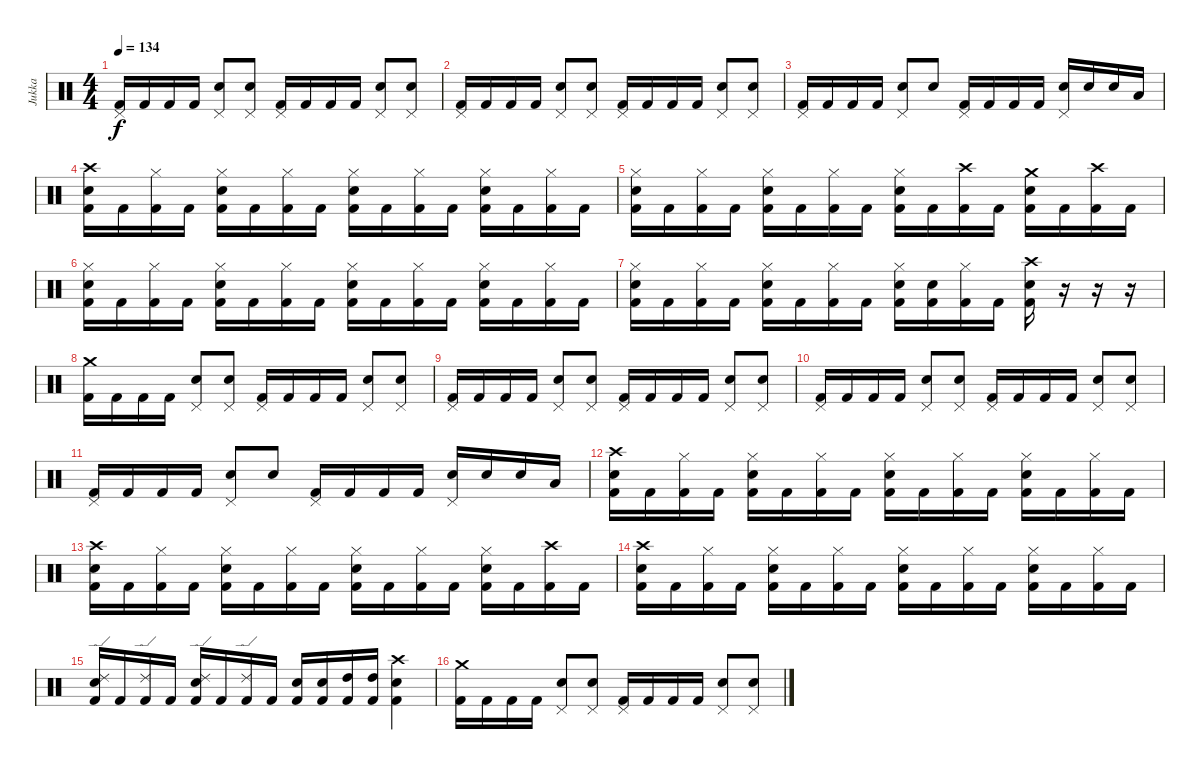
\track ("Jukka" "Jukka") {instrument percussion}
\staff {score}
\articulation defaults
\ts (4 4)
\tempo 134
\clef neutral
\ks c
("Pedal Hi-Hat (hit)" "Kick (hit) 2").16{dy f} "Kick (hit) 2".16 "Kick (hit) 2".16 "Kick (hit) 2".16 ("Pedal Hi-Hat (hit)" "Electric Snare (hit)").8 ("Pedal Hi-Hat (hit)" "Electric Snare (hit)").8 ("Pedal Hi-Hat (hit)" "Kick (hit) 2").16 "Kick (hit) 2".16 "Kick (hit) 2".16 "Kick (hit) 2".16 ("Pedal Hi-Hat (hit)" "Electric Snare (hit)").8 ("Pedal Hi-Hat (hit)" "Electric Snare (hit)").8 |
("Pedal Hi-Hat (hit)" "Kick (hit) 2").16 "Kick (hit) 2".16 "Kick (hit) 2".16 "Kick (hit) 2".16 ("Pedal Hi-Hat (hit)" "Electric Snare (hit)").8 ("Pedal Hi-Hat (hit)" "Electric Snare (hit)").8 ("Pedal Hi-Hat (hit)" "Kick (hit) 2").16 "Kick (hit) 2".16 "Kick (hit) 2".16 "Kick (hit) 2".16 ("Pedal Hi-Hat (hit)" "Electric Snare (hit)").8 ("Pedal Hi-Hat (hit)" "Electric Snare (hit)").8 |
("Pedal Hi-Hat (hit)" "Kick (hit) 2").16 "Kick (hit) 2".16 "Kick (hit) 2".16 "Kick (hit) 2".16 ("Pedal Hi-Hat (hit)" "Electric Snare (hit)").8 "Electric Snare (hit)".8 ("Pedal Hi-Hat (hit)" "Kick (hit) 2").16 "Kick (hit) 2".16 "Kick (hit) 2".16 "Kick (hit) 2".16 ("Pedal Hi-Hat (hit)" "Electric Snare (hit)").16 "Electric Snare (hit)".16 "Electric Snare (hit)".16 "Low Tom (hit)".16 |
("Crash high (hit)" "Electric Snare (hit)" "Kick (hit) 2").16 "Kick (hit) 2".16 ("Hi-Hat (closed)" "Kick (hit) 2").16 "Kick (hit) 2".16 ("Hi-Hat (closed)" "Electric Snare (hit)" "Kick (hit) 2").16 "Kick (hit) 2".16 ("Hi-Hat (closed)" "Kick (hit) 2").16 "Kick (hit) 2".16 ("Hi-Hat (closed)" "Electric Snare (hit)" "Kick (hit) 2").16 "Kick (hit) 2".16 ("Hi-Hat (closed)" "Kick (hit) 2").16 "Kick (hit) 2".16 ("Hi-Hat (closed)" "Electric Snare (hit)" "Kick (hit) 2").16 "Kick (hit) 2".16 ("Hi-Hat (closed)" "Kick (hit) 2").16 "Kick (hit) 2".16 |
("Hi-Hat (closed)" "Electric Snare (hit)" "Kick (hit) 2").16 "Kick (hit) 2".16 ("Hi-Hat (closed)" "Kick (hit) 2").16 "Kick (hit) 2".16 ("Hi-Hat (closed)" "Electric Snare (hit)" "Kick (hit) 2").16 "Kick (hit) 2".16 ("Hi-Hat (closed)" "Kick (hit) 2").16 "Kick (hit) 2".16 ("Hi-Hat (closed)" "Electric Snare (hit)" "Kick (hit) 2").16 "Kick (hit) 2".16 ("Crash high (hit)" "Kick (hit) 2").16 "Kick (hit) 2".16 ("Crash medium (hit)" "Electric Snare (hit)" "Kick (hit) 2").16 "Kick (hit) 2".16 ("Crash high (hit)" "Kick (hit) 2").16 "Kick (hit) 2".16 |
("Hi-Hat (closed)" "Electric Snare (hit)" "Kick (hit) 2").16 "Kick (hit) 2".16 ("Hi-Hat (closed)" "Kick (hit) 2").16 "Kick (hit) 2".16 ("Hi-Hat (closed)" "Electric Snare (hit)" "Kick (hit) 2").16 "Kick (hit) 2".16 ("Hi-Hat (closed)" "Kick (hit) 2").16 "Kick (hit) 2".16 ("Hi-Hat (closed)" "Electric Snare (hit)" "Kick (hit) 2").16 "Kick (hit) 2".16 ("Hi-Hat (closed)" "Kick (hit) 2").16 "Kick (hit) 2".16 ("Hi-Hat (closed)" "Electric Snare (hit)" "Kick (hit) 2").16 "Kick (hit) 2".16 ("Hi-Hat (closed)" "Kick (hit) 2").16 "Kick (hit) 2".16 |
("Hi-Hat (closed)" "Electric Snare (hit)" "Kick (hit) 2").16 "Kick (hit) 2".16 ("Hi-Hat (closed)" "Kick (hit) 2").16 "Kick (hit) 2".16 ("Hi-Hat (closed)" "Electric Snare (hit)" "Kick (hit) 2").16 "Kick (hit) 2".16 ("Hi-Hat (closed)" "Kick (hit) 2").16 "Kick (hit) 2".16 ("Hi-Hat (closed)" "Electric Snare (hit)" "Kick (hit) 2").16 ("Electric Snare (hit)" "Kick (hit) 2").16 ("Hi-Hat (closed)" "Kick (hit) 2").16 "Kick (hit) 2".16 ("Crash high (hit)" "Electric Snare (hit)" "Kick (hit) 2").16 r.16 r.16 r.16 |
("Crash medium (hit)" "Kick (hit) 2").16 "Kick (hit) 2".16 "Kick (hit) 2".16 "Kick (hit) 2".16 ("Pedal Hi-Hat (hit)" "Electric Snare (hit)").8 ("Pedal Hi-Hat (hit)" "Electric Snare (hit)").8 ("Pedal Hi-Hat (hit)" "Kick (hit) 2").16 "Kick (hit) 2".16 "Kick (hit) 2".16 "Kick (hit) 2".16 ("Pedal Hi-Hat (hit)" "Electric Snare (hit)").8 ("Pedal Hi-Hat (hit)" "Electric Snare (hit)").8 |
("Pedal Hi-Hat (hit)" "Kick (hit) 2").16 "Kick (hit) 2".16 "Kick (hit) 2".16 "Kick (hit) 2".16 ("Pedal Hi-Hat (hit)" "Electric Snare (hit)").8 ("Pedal Hi-Hat (hit)" "Electric Snare (hit)").8 ("Pedal Hi-Hat (hit)" "Kick (hit) 2").16 "Kick (hit) 2".16 "Kick (hit) 2".16 "Kick (hit) 2".16 ("Pedal Hi-Hat (hit)" "Electric Snare (hit)").8 ("Pedal Hi-Hat (hit)" "Electric Snare (hit)").8 |
("Pedal Hi-Hat (hit)" "Kick (hit) 2").16 "Kick (hit) 2".16 "Kick (hit) 2".16 "Kick (hit) 2".16 ("Pedal Hi-Hat (hit)" "Electric Snare (hit)").8 ("Pedal Hi-Hat (hit)" "Electric Snare (hit)").8 ("Pedal Hi-Hat (hit)" "Kick (hit) 2").16 "Kick (hit) 2".16 "Kick (hit) 2".16 "Kick (hit) 2".16 ("Pedal Hi-Hat (hit)" "Electric Snare (hit)").8 ("Pedal Hi-Hat (hit)" "Electric Snare (hit)").8 |
("Pedal Hi-Hat (hit)" "Kick (hit) 2").16 "Kick (hit) 2".16 "Kick (hit) 2".16 "Kick (hit) 2".16 ("Pedal Hi-Hat (hit)" "Electric Snare (hit)").8 "Electric Snare (hit)".8 ("Pedal Hi-Hat (hit)" "Kick (hit) 2").16 "Kick (hit) 2".16 "Kick (hit) 2".16 "Kick (hit) 2".16 ("Pedal Hi-Hat (hit)" "Electric Snare (hit)").16 "Electric Snare (hit)".16 "Electric Snare (hit)".16 "Low Tom (hit)".16 |
("Crash high (hit)" "Electric Snare (hit)" "Kick (hit) 2").16 "Kick (hit) 2".16 ("Hi-Hat (closed)" "Kick (hit) 2").16 "Kick (hit) 2".16 ("Hi-Hat (closed)" "Electric Snare (hit)" "Kick (hit) 2").16 "Kick (hit) 2".16 ("Hi-Hat (closed)" "Kick (hit) 2").16 "Kick (hit) 2".16 ("Hi-Hat (closed)" "Electric Snare (hit)" "Kick (hit) 2").16 "Kick (hit) 2".16 ("Hi-Hat (closed)" "Kick (hit) 2").16 "Kick (hit) 2".16 ("Hi-Hat (closed)" "Electric Snare (hit)" "Kick (hit) 2").16 "Kick (hit) 2".16 ("Hi-Hat (closed)" "Kick (hit) 2").16 "Kick (hit) 2".16 |
("Crash high (hit)" "Electric Snare (hit)" "Kick (hit) 2").16 "Kick (hit) 2".16 ("Hi-Hat (closed)" "Kick (hit) 2").16 "Kick (hit) 2".16 ("Hi-Hat (closed)" "Electric Snare (hit)" "Kick (hit) 2").16 "Kick (hit) 2".16 ("Hi-Hat (closed)" "Kick (hit) 2").16 "Kick (hit) 2".16 ("Hi-Hat (closed)" "Electric Snare (hit)" "Kick (hit) 2").16 "Kick (hit) 2".16 ("Hi-Hat (closed)" "Kick (hit) 2").16 "Kick (hit) 2".16 ("Hi-Hat (closed)" "Electric Snare (hit)" "Kick (hit) 2").16 "Kick (hit) 2".16 ("Crash high (hit)" "Kick (hit) 2").16 "Kick (hit) 2".16 |
("Crash high (hit)" "Electric Snare (hit)" "Kick (hit) 2").16 "Kick (hit) 2".16 ("Hi-Hat (closed)" "Kick (hit) 2").16 "Kick (hit) 2".16 ("Hi-Hat (closed)" "Electric Snare (hit)" "Kick (hit) 2").16 "Kick (hit) 2".16 ("Hi-Hat (closed)" "Kick (hit) 2").16 "Kick (hit) 2".16 ("Hi-Hat (closed)" "Electric Snare (hit)" "Kick (hit) 2").16 "Kick (hit) 2".16 ("Hi-Hat (closed)" "Kick (hit) 2").16 "Kick (hit) 2".16 ("Hi-Hat (closed)" "Electric Snare (hit)" "Kick (hit) 2").16 "Kick (hit) 2".16 ("Hi-Hat (closed)" "Kick (hit) 2").16 "Kick (hit) 2".16 |
("Ride (edge) 2" "Electric Snare (hit)" "Kick (hit) 2").16 "Kick (hit) 2".16 ("Ride (edge) 2" "Kick (hit) 2").16 "Kick (hit) 2".16 ("Ride (edge) 2" "Electric Snare (hit)" "Kick (hit) 2").16 "Kick (hit) 2".16 ("Ride (edge) 2" "Kick (hit) 2").16 "Kick (hit) 2".16 ("Electric Snare (hit)" "Kick (hit) 2").16 ("Electric Snare (hit)" "Kick (hit) 2").16 ("High Tom (hit)" "Kick (hit) 2").16 ("High Tom (hit)" "Kick (hit) 2").16 ("Crash high (hit)" "Electric Snare (hit)" "Kick (hit) 2").4 |
("Crash medium (hit)" "Kick (hit) 2").16 "Kick (hit) 2".16 "Kick (hit) 2".16 "Kick (hit) 2".16 ("Pedal Hi-Hat (hit)" "Electric Snare (hit)").8 ("Pedal Hi-Hat (hit)" "Electric Snare (hit)").8 ("Pedal Hi-Hat (hit)" "Kick (hit) 2").16 "Kick (hit) 2".16 "Kick (hit) 2".16 "Kick (hit) 2".16 ("Pedal Hi-Hat (hit)" "Electric Snare (hit)").8 ("Pedal Hi-Hat (hit)" "Electric Snare (hit)").8
